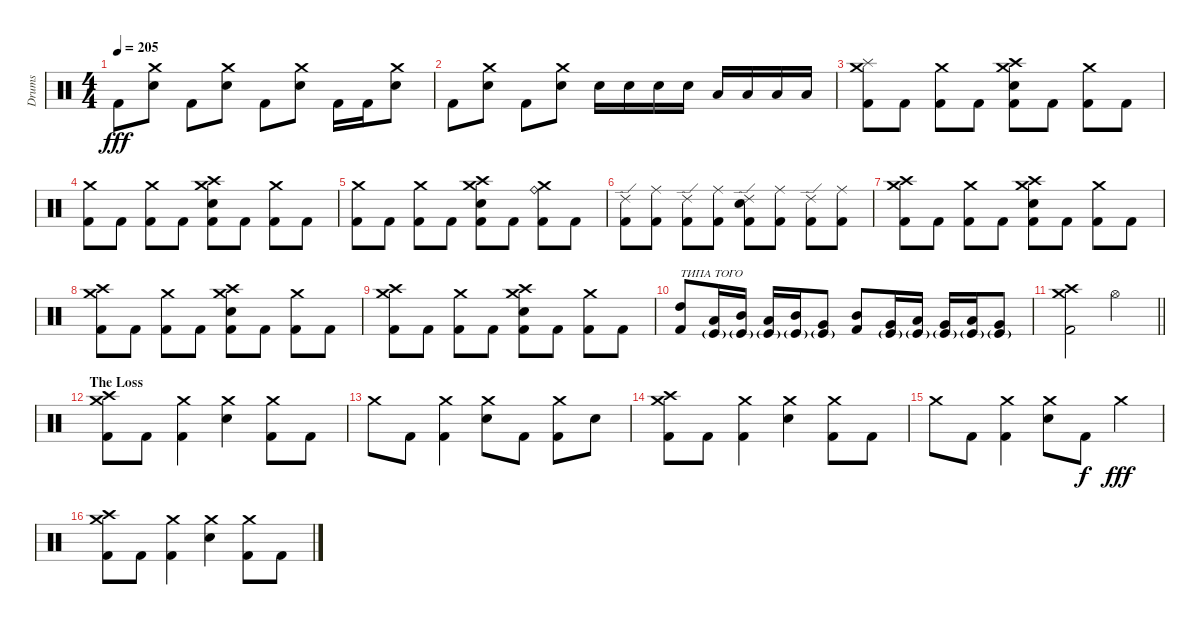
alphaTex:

\track ("Drums" "Drums") {instrument percussion}
\staff {score}
\articulation defaults
\ts (4 4)
\tempo 205
\clef neutral
\ks c "Kick (hit) 2".8{dy fff}
("Crash medium (hit)" "Electric Snare (hit)").8 "Kick (hit) 2".8 ("Crash medium (hit)" "Electric Snare (hit)").8 "Kick (hit) 2".8 ("Crash medium (hit)" "Electric Snare (hit)").8 "Kick (hit) 2".16 "Kick (hit) 2".16 ("Crash medium (hit)" "Electric Snare (hit)").8 |
"Kick (hit) 2".8 ("Crash medium (hit)" "Electric Snare (hit)").8 "Kick (hit) 2".8 ("Crash medium (hit)" "Electric Snare (hit)").8 "Electric Snare (hit)".16 "Electric Snare (hit)".16 "Electric Snare (hit)".16 "Electric Snare (hit)".16 "Low Tom (hit)".16 "Low Tom (hit)".16 "Low Tom (hit)".16 "Low Tom (hit)".16 |
("Crash medium (hit)" "Splash (hit)" "Kick (hit) 2").8 "Kick (hit) 2".8 ("Crash medium (hit)" "Kick (hit) 2").8 "Kick (hit) 2".8 ("Crash medium (hit)" "Crash high (hit)" "Electric Snare (hit)" "Kick (hit) 2").8 "Kick (hit) 2".8 ("Crash medium (hit)" "Kick (hit) 2").8 "Kick (hit) 2".8 |
("Crash medium (hit)" "Kick (hit) 2").8 "Kick (hit) 2".8 ("Crash medium (hit)" "Kick (hit) 2").8 "Kick (hit) 2".8 ("Crash medium (hit)" "Crash high (hit)" "Electric Snare (hit)" "Kick (hit) 2").8 "Kick (hit) 2".8 ("Crash medium (hit)" "Kick (hit) 2").8 "Kick (hit) 2".8 |
("Crash medium (hit)" "Kick (hit) 2").8 "Kick (hit) 2".8 ("Crash medium (hit)" "Kick (hit) 2").8 "Kick (hit) 2".8 ("Crash medium (hit)" "Crash high (hit)" "Electric Snare (hit)" "Kick (hit) 2").8 "Kick (hit) 2".8 ("Crash medium (hit)" "Ride (bell)" "Kick (hit) 2").8 "Kick (hit) 2".8 |
("Ride (edge) 2" "Kick (hit) 2").8 ("Ride (middle)" "Kick (hit) 2").8 ("Ride (edge) 2" "Kick (hit) 2").8 ("Ride (middle)" "Kick (hit) 2").8 ("Ride (edge) 2" "Electric Snare (hit)" "Kick (hit) 2").8 ("Ride (middle)" "Kick (hit) 2").8 ("Ride (edge) 2" "Kick (hit) 2").8 ("Ride (middle)" "Kick (hit) 2").8 |
("Crash medium (hit)" "Crash high (hit)" "Kick (hit) 2").8 "Kick (hit) 2".8 ("Crash medium (hit)" "Kick (hit) 2").8 "Kick (hit) 2".8 ("Crash medium (hit)" "Crash high (hit)" "Electric Snare (hit)" "Kick (hit) 2").8 "Kick (hit) 2".8 ("Crash medium (hit)" "Kick (hit) 2").8 "Kick (hit) 2".8 |
("Crash medium (hit)" "Crash high (hit)" "Kick (hit) 2").8 "Kick (hit) 2".8 ("Crash medium (hit)" "Kick (hit) 2").8 "Kick (hit) 2".8 ("Crash medium (hit)" "Crash high (hit)" "Electric Snare (hit)" "Kick (hit) 2").8 "Kick (hit) 2".8 ("Crash medium (hit)" "Kick (hit) 2").8 "Kick (hit) 2".8 |
("Crash medium (hit)" "Crash high (hit)" "Kick (hit) 2").8 "Kick (hit) 2".8 ("Crash medium (hit)" "Kick (hit) 2").8 "Kick (hit) 2".8 ("Crash medium (hit)" "Crash high (hit)" "Electric Snare (hit)" "Kick (hit) 2").8 "Kick (hit) 2".8 ("Crash medium (hit)" "Kick (hit) 2").8 "Kick (hit) 2".8 |
("High Tom (hit)" "Kick (hit) 2").8{txt "ТИПА ТОГО"} ("Low Tom (hit)" "Kick (hit)"{g}).16 ("Mid Tom (hit)" "Kick (hit)"{g}).16 ("Low Tom (hit)" "Kick (hit)"{g}).16 ("Mid Tom (hit)" "Kick (hit)"{g}).16 ("Very Low Tom (hit)" "Kick (hit)"{g}).8 ("Mid Tom (hit)" "Kick (hit) 2").8 ("Very Low Tom (hit)" "Kick (hit)"{g}).16 ("Low Tom (hit)" "Kick (hit)"{g}).16 ("Very Low Tom (hit)" "Kick (hit)"{g}).16 ("Low Tom (hit)" "Kick (hit)"{g}).16 ("Very Low Tom (hit)" "Kick (hit)"{g}).8 |
\barLineRight lightlight
("Crash medium (hit)" "Crash high (hit)" "Kick (hit) 2").2 "Hi-Hat (open)".2 |
\section ("" "The Loss")
("Crash medium (hit)" "Crash high (hit)" "Kick (hit) 2").8 "Kick (hit) 2".8 ("Crash medium (hit)" "Kick (hit) 2").4 ("Crash medium (hit)" "Electric Snare (hit)").4 ("Crash medium (hit)" "Kick (hit) 2").8 "Kick (hit) 2".8 |
"Crash medium (hit)".8 "Kick (hit) 2".8 ("Crash medium (hit)" "Kick (hit) 2").4 ("Crash medium (hit)" "Electric Snare (hit)").8 "Kick (hit) 2".8 ("Crash medium (hit)" "Kick (hit) 2").8 "Electric Snare (hit)".8 |
("Crash medium (hit)" "Crash high (hit)" "Kick (hit) 2").8 "Kick (hit) 2".8 ("Crash medium (hit)" "Kick (hit) 2").4 ("Crash medium (hit)" "Electric Snare (hit)").4 ("Crash medium (hit)" "Kick (hit) 2").8 "Kick (hit) 2".8 |
"Crash medium (hit)".8 "Kick (hit) 2".8 ("Crash medium (hit)" "Kick (hit) 2").4 ("Crash medium (hit)" "Electric Snare (hit)").8 "Kick (hit) 2".8{dy f} "Crash medium (hit)".4{dy fff} |
("Crash medium (hit)" "Crash high (hit)" "Kick (hit) 2").8 "Kick (hit) 2".8 ("Crash medium (hit)" "Kick (hit) 2").4 ("Crash medium (hit)" "Electric Snare (hit)").4 ("Crash medium (hit)" "Kick (hit) 2").8 "Kick (hit) 2".8
